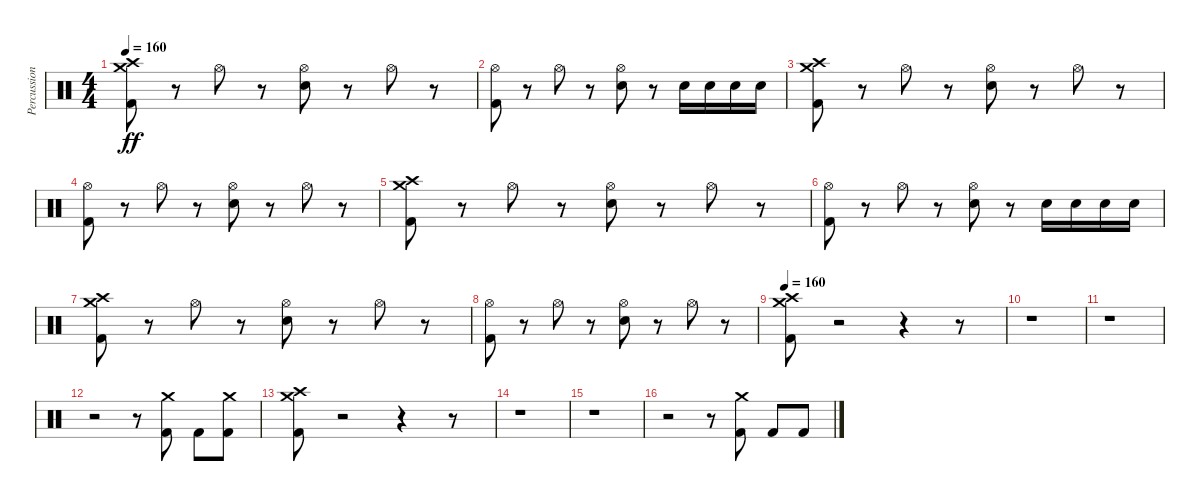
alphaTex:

\track ("Percussion" "Percussion") {instrument percussion}
\staff {score}
\articulation defaults
\ts (4 4)
\tempo 160
\clef neutral
\ks c
("Kick (hit) 2" "Crash medium (hit)" "Crash high (hit)").8{dy ff} r.8 "Hi-Hat (open)".8 r.8 ("Electric Snare (hit)" "Hi-Hat (open)").8 r.8 "Hi-Hat (open)".8 r.8 |
("Kick (hit) 2" "Hi-Hat (open)").8 r.8 "Hi-Hat (open)".8 r.8 ("Electric Snare (hit)" "Hi-Hat (open)").8 r.8 "Electric Snare (hit)".16 "Electric Snare (hit)".16 "Electric Snare (hit)".16 "Electric Snare (hit)".16 |
("Kick (hit) 2" "Crash medium (hit)" "Crash high (hit)").8 r.8 "Hi-Hat (open)".8 r.8 ("Electric Snare (hit)" "Hi-Hat (open)").8 r.8 "Hi-Hat (open)".8 r.8 |
("Kick (hit) 2" "Hi-Hat (open)").8 r.8 "Hi-Hat (open)".8 r.8 ("Electric Snare (hit)" "Hi-Hat (open)").8 r.8 "Hi-Hat (open)".8 r.8 |
("Kick (hit) 2" "Crash medium (hit)" "Crash high (hit)").8 r.8 "Hi-Hat (open)".8 r.8 ("Electric Snare (hit)" "Hi-Hat (open)").8 r.8 "Hi-Hat (open)".8 r.8 |
("Kick (hit) 2" "Hi-Hat (open)").8 r.8 "Hi-Hat (open)".8 r.8 ("Electric Snare (hit)" "Hi-Hat (open)").8 r.8 "Electric Snare (hit)".16 "Electric Snare (hit)".16 "Electric Snare (hit)".16 "Electric Snare (hit)".16 |
("Kick (hit) 2" "Crash medium (hit)" "Crash high (hit)").8 r.8 "Hi-Hat (open)".8 r.8 ("Electric Snare (hit)" "Hi-Hat (open)").8 r.8 "Hi-Hat (open)".8 r.8 |
("Kick (hit) 2" "Hi-Hat (open)").8 r.8 "Hi-Hat (open)".8 r.8 ("Electric Snare (hit)" "Hi-Hat (open)").8 r.8 "Hi-Hat (open)".8 r.8 |
\tempo 160
("Kick (hit) 2" "Crash medium (hit)" "Crash high (hit)").8 r.2 r.4 r.8 |
r.1 |
r.1 |
r.2 r.8 ("Kick (hit) 2" "Crash medium (hit)").8 "Kick (hit) 2".8 ("Kick (hit) 2" "Crash medium (hit)").8 |
("Kick (hit) 2" "Crash medium (hit)" "Crash high (hit)").8 r.2 r.4 r.8 |
r.1 |
r.1 |
r.2 r.8 ("Kick (hit) 2" "Crash medium (hit)").8 "Kick (hit) 2".8 "Kick (hit) 2".8
